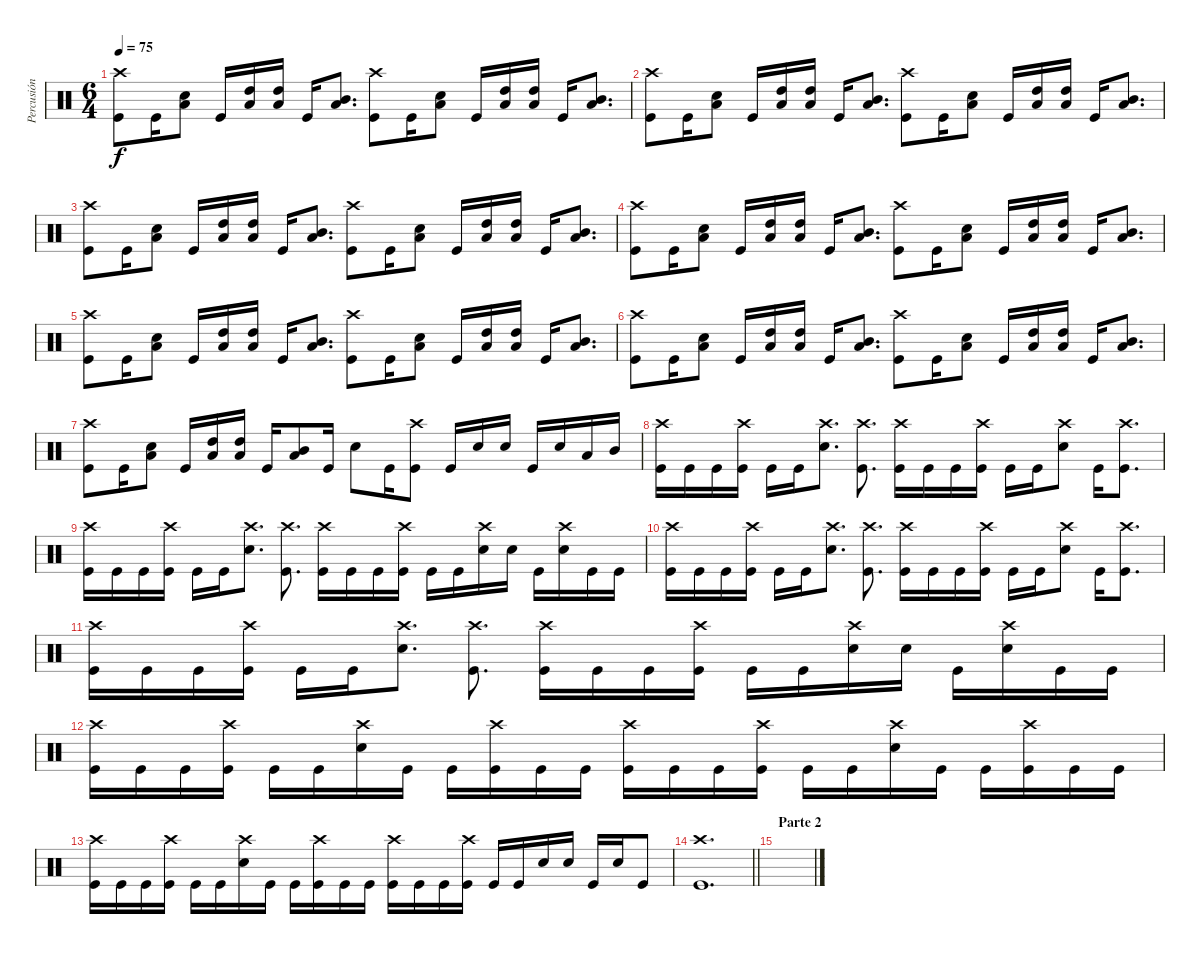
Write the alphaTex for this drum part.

\track ("Percusión" "Percusión") {instrument percussion}
\staff {score}
\articulation defaults
\ts (6 4)
\tempo 75
\clef neutral
\ks c
("Kick (hit)" "Crash high (hit)").8{dy f} "Kick (hit)".16 ("Snare (hit) 2" "Low Tom (hit)").8 "Kick (hit)".16 ("Low Tom (hit)" "High Tom (hit)").16 ("Low Tom (hit)" "High Tom (hit)").16 "Kick (hit)".16 ("Low Tom (hit)" "Mid Tom (hit)").8{d} ("Kick (hit)" "Crash high (hit)").8 "Kick (hit)".16 ("Snare (hit) 2" "Low Tom (hit)").8 "Kick (hit)".16 ("Low Tom (hit)" "High Tom (hit)").16 ("Low Tom (hit)" "High Tom (hit)").16 "Kick (hit)".16 ("Low Tom (hit)" "Mid Tom (hit)").8{d} |
("Kick (hit)" "Crash high (hit)").8 "Kick (hit)".16 ("Snare (hit) 2" "Low Tom (hit)").8 "Kick (hit)".16 ("Low Tom (hit)" "High Tom (hit)").16 ("Low Tom (hit)" "High Tom (hit)").16 "Kick (hit)".16 ("Low Tom (hit)" "Mid Tom (hit)").8{d} ("Kick (hit)" "Crash high (hit)").8 "Kick (hit)".16 ("Snare (hit) 2" "Low Tom (hit)").8 "Kick (hit)".16 ("Low Tom (hit)" "High Tom (hit)").16 ("Low Tom (hit)" "High Tom (hit)").16 "Kick (hit)".16 ("Low Tom (hit)" "Mid Tom (hit)").8{d} |
("Kick (hit)" "Crash high (hit)").8 "Kick (hit)".16 ("Snare (hit) 2" "Low Tom (hit)").8 "Kick (hit)".16 ("Low Tom (hit)" "High Tom (hit)").16 ("Low Tom (hit)" "High Tom (hit)").16 "Kick (hit)".16 ("Low Tom (hit)" "Mid Tom (hit)").8{d} ("Kick (hit)" "Crash high (hit)").8 "Kick (hit)".16 ("Snare (hit) 2" "Low Tom (hit)").8 "Kick (hit)".16 ("Low Tom (hit)" "High Tom (hit)").16 ("Low Tom (hit)" "High Tom (hit)").16 "Kick (hit)".16 ("Low Tom (hit)" "Mid Tom (hit)").8{d} |
("Kick (hit)" "Crash high (hit)").8 "Kick (hit)".16 ("Snare (hit) 2" "Low Tom (hit)").8 "Kick (hit)".16 ("Low Tom (hit)" "High Tom (hit)").16 ("Low Tom (hit)" "High Tom (hit)").16 "Kick (hit)".16 ("Low Tom (hit)" "Mid Tom (hit)").8{d} ("Kick (hit)" "Crash high (hit)").8 "Kick (hit)".16 ("Snare (hit) 2" "Low Tom (hit)").8 "Kick (hit)".16 ("Low Tom (hit)" "High Tom (hit)").16 ("Low Tom (hit)" "High Tom (hit)").16 "Kick (hit)".16 ("Low Tom (hit)" "Mid Tom (hit)").8{d} |
("Kick (hit)" "Crash high (hit)").8 "Kick (hit)".16 ("Snare (hit) 2" "Low Tom (hit)").8 "Kick (hit)".16 ("Low Tom (hit)" "High Tom (hit)").16 ("Low Tom (hit)" "High Tom (hit)").16 "Kick (hit)".16 ("Low Tom (hit)" "Mid Tom (hit)").8{d} ("Kick (hit)" "Crash high (hit)").8 "Kick (hit)".16 ("Snare (hit) 2" "Low Tom (hit)").8 "Kick (hit)".16 ("Low Tom (hit)" "High Tom (hit)").16 ("Low Tom (hit)" "High Tom (hit)").16 "Kick (hit)".16 ("Low Tom (hit)" "Mid Tom (hit)").8{d} |
("Kick (hit)" "Crash high (hit)").8 "Kick (hit)".16 ("Snare (hit) 2" "Low Tom (hit)").8 "Kick (hit)".16 ("Low Tom (hit)" "High Tom (hit)").16 ("Low Tom (hit)" "High Tom (hit)").16 "Kick (hit)".16 ("Low Tom (hit)" "Mid Tom (hit)").8{d} ("Kick (hit)" "Crash high (hit)").8 "Kick (hit)".16 ("Snare (hit) 2" "Low Tom (hit)").8 "Kick (hit)".16 ("Low Tom (hit)" "High Tom (hit)").16 ("Low Tom (hit)" "High Tom (hit)").16 "Kick (hit)".16 ("Low Tom (hit)" "Mid Tom (hit)").8{d} |
("Kick (hit)" "Crash high (hit)").8 "Kick (hit)".16 ("Snare (hit) 2" "Low Tom (hit)").8 "Kick (hit)".16 ("Low Tom (hit)" "High Tom (hit)").16 ("Low Tom (hit)" "High Tom (hit)").16 "Kick (hit)".16 ("Low Tom (hit)" "Mid Tom (hit)").8 "Kick (hit)".16 "Snare (hit) 2".8 "Kick (hit)".16 ("Kick (hit)" "Crash high (hit)").8 "Kick (hit)".16 "Snare (hit) 2".16 "Snare (hit) 2".16 "Kick (hit)".16 "Snare (hit) 2".16 "Low Tom (hit)".16 "Mid Tom (hit)".16 |
("Kick (hit)" "Crash high (hit)").16 "Kick (hit)".16 "Kick (hit)".16 ("Kick (hit)" "Crash high (hit)").16 "Kick (hit)".16 "Kick (hit)".16 ("Snare (hit) 2" "Crash high (hit)").8{d} ("Kick (hit)" "Crash high (hit)").8{d} ("Kick (hit)" "Crash high (hit)").16 "Kick (hit)".16 "Kick (hit)".16 ("Kick (hit)" "Crash high (hit)").16 "Kick (hit)".16 "Kick (hit)".16 ("Crash high (hit)" "Snare (hit) 2").8 "Kick (hit)".16 ("Kick (hit)" "Crash high (hit)").8{d} |
("Kick (hit)" "Crash high (hit)").16 "Kick (hit)".16 "Kick (hit)".16 ("Kick (hit)" "Crash high (hit)").16 "Kick (hit)".16 "Kick (hit)".16 ("Snare (hit) 2" "Crash high (hit)").8{d} ("Kick (hit)" "Crash high (hit)").8{d} ("Kick (hit)" "Crash high (hit)").16 "Kick (hit)".16 "Kick (hit)".16 ("Kick (hit)" "Crash high (hit)").16 "Kick (hit)".16 "Kick (hit)".16 ("Crash high (hit)" "Snare (hit) 2").16 "Snare (hit) 2".16 "Kick (hit)".16 ("Snare (hit) 2" "Crash high (hit)").16 "Kick (hit)".16 "Kick (hit)".16 |
("Kick (hit)" "Crash high (hit)").16 "Kick (hit)".16 "Kick (hit)".16 ("Kick (hit)" "Crash high (hit)").16 "Kick (hit)".16 "Kick (hit)".16 ("Snare (hit) 2" "Crash high (hit)").8{d} ("Kick (hit)" "Crash high (hit)").8{d} ("Kick (hit)" "Crash high (hit)").16 "Kick (hit)".16 "Kick (hit)".16 ("Kick (hit)" "Crash high (hit)").16 "Kick (hit)".16 "Kick (hit)".16 ("Crash high (hit)" "Snare (hit) 2").8 "Kick (hit)".16 ("Kick (hit)" "Crash high (hit)").8{d} |
("Kick (hit)" "Crash high (hit)").16 "Kick (hit)".16 "Kick (hit)".16 ("Kick (hit)" "Crash high (hit)").16 "Kick (hit)".16 "Kick (hit)".16 ("Snare (hit) 2" "Crash high (hit)").8{d} ("Kick (hit)" "Crash high (hit)").8{d} ("Kick (hit)" "Crash high (hit)").16 "Kick (hit)".16 "Kick (hit)".16 ("Kick (hit)" "Crash high (hit)").16 "Kick (hit)".16 "Kick (hit)".16 ("Crash high (hit)" "Snare (hit) 2").16 "Snare (hit) 2".16 "Kick (hit)".16 ("Snare (hit) 2" "Crash high (hit)").16 "Kick (hit)".16 "Kick (hit)".16 |
("Kick (hit)" "Crash high (hit)").16 "Kick (hit)".16 "Kick (hit)".16 ("Kick (hit)" "Crash high (hit)").16 "Kick (hit)".16 "Kick (hit)".16 ("Snare (hit) 2" "Crash high (hit)").16 "Kick (hit)".16 "Kick (hit)".16 ("Kick (hit)" "Crash high (hit)").16 "Kick (hit)".16 "Kick (hit)".16 ("Kick (hit)" "Crash high (hit)").16 "Kick (hit)".16 "Kick (hit)".16 ("Kick (hit)" "Crash high (hit)").16 "Kick (hit)".16 "Kick (hit)".16 ("Snare (hit) 2" "Crash high (hit)").16 "Kick (hit)".16 "Kick (hit)".16 ("Kick (hit)" "Crash high (hit)").16 "Kick (hit)".16 "Kick (hit)".16 |
("Kick (hit)" "Crash high (hit)").16 "Kick (hit)".16 "Kick (hit)".16 ("Kick (hit)" "Crash high (hit)").16 "Kick (hit)".16 "Kick (hit)".16 ("Snare (hit) 2" "Crash high (hit)").16 "Kick (hit)".16 "Kick (hit)".16 ("Kick (hit)" "Crash high (hit)").16 "Kick (hit)".16 "Kick (hit)".16 ("Kick (hit)" "Crash high (hit)").16 "Kick (hit)".16 "Kick (hit)".16 ("Kick (hit)" "Crash high (hit)").16 "Kick (hit)".16 "Kick (hit)".16 "Snare (hit) 2".16 "Snare (hit) 2".16 "Kick (hit)".16 "Snare (hit) 2".16 "Kick (hit)".8 |
\barLineRight lightlight
("Kick (hit)" "Crash high (hit)").1{d} |
\section ("" "Parte 2")
